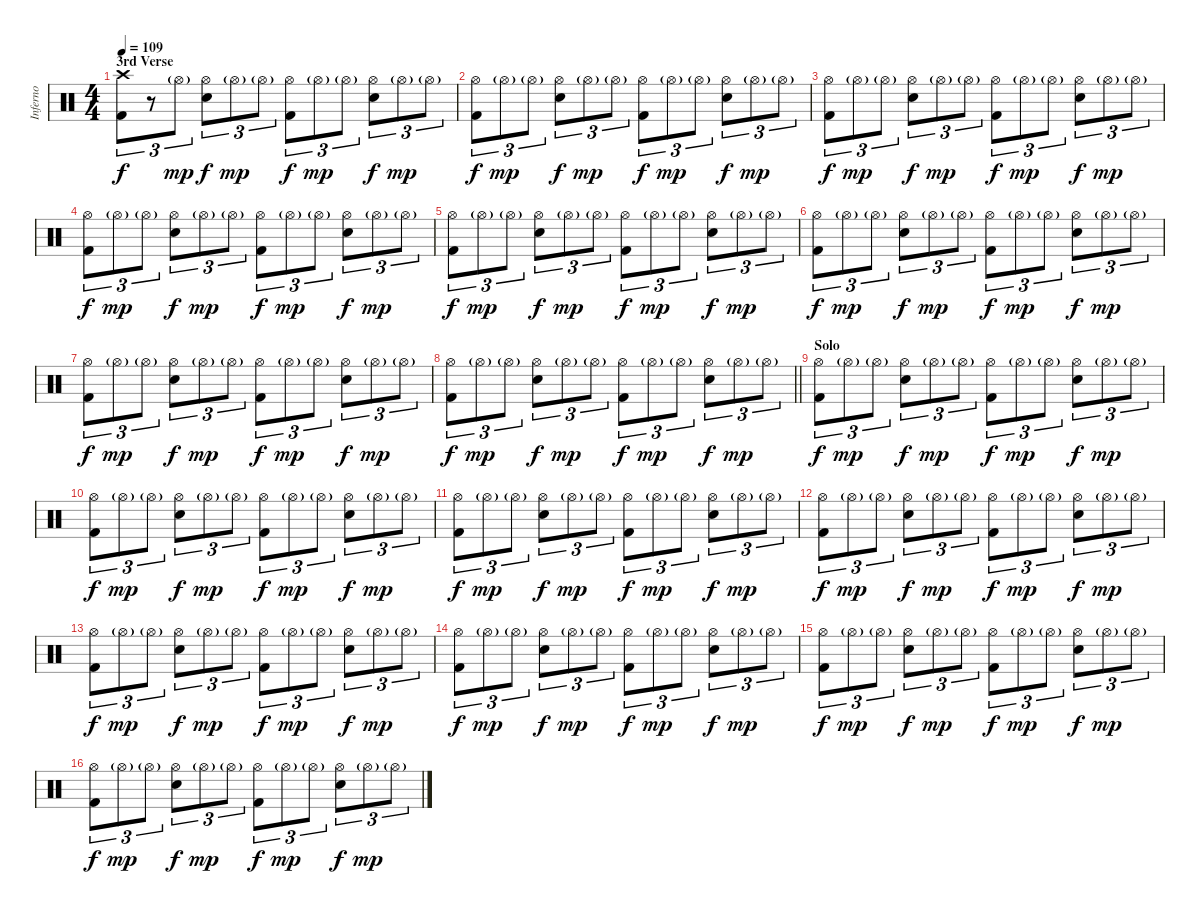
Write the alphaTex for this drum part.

\track ("Inferno" "Inferno") {instrument percussion}
\staff {score}
\articulation defaults
\ts (4 4)
\section ("" "3rd Verse")
\tempo 109
\clef neutral
\ks c
("Crash high (hit)" "Kick (hit) 2").8{tu (3 2) dy f} r.8{tu (3 2)} "Hi-Hat (open)"{g}.8{tu (3 2) dy mp} ("Hi-Hat (open)" "Snare (hit) 2").8{tu (3 2) dy f} "Hi-Hat (open)"{g}.8{tu (3 2) dy mp} "Hi-Hat (open)"{g}.8{tu (3 2)} ("Hi-Hat (open)" "Kick (hit) 2").8{tu (3 2) dy f} "Hi-Hat (open)"{g}.8{tu (3 2) dy mp} "Hi-Hat (open)"{g}.8{tu (3 2)} ("Hi-Hat (open)" "Snare (hit) 2").8{tu (3 2) dy f} "Hi-Hat (open)"{g}.8{tu (3 2) dy mp} "Hi-Hat (open)"{g}.8{tu (3 2)} |
("Hi-Hat (open)" "Kick (hit) 2").8{tu (3 2) dy f} "Hi-Hat (open)"{g}.8{tu (3 2) dy mp} "Hi-Hat (open)"{g}.8{tu (3 2)} ("Hi-Hat (open)" "Snare (hit) 2").8{tu (3 2) dy f} "Hi-Hat (open)"{g}.8{tu (3 2) dy mp} "Hi-Hat (open)"{g}.8{tu (3 2)} ("Hi-Hat (open)" "Kick (hit) 2").8{tu (3 2) dy f} "Hi-Hat (open)"{g}.8{tu (3 2) dy mp} "Hi-Hat (open)"{g}.8{tu (3 2)} ("Hi-Hat (open)" "Snare (hit) 2").8{tu (3 2) dy f} "Hi-Hat (open)"{g}.8{tu (3 2) dy mp} "Hi-Hat (open)"{g}.8{tu (3 2)} |
("Hi-Hat (open)" "Kick (hit) 2").8{tu (3 2) dy f} "Hi-Hat (open)"{g}.8{tu (3 2) dy mp} "Hi-Hat (open)"{g}.8{tu (3 2)} ("Hi-Hat (open)" "Snare (hit) 2").8{tu (3 2) dy f} "Hi-Hat (open)"{g}.8{tu (3 2) dy mp} "Hi-Hat (open)"{g}.8{tu (3 2)} ("Hi-Hat (open)" "Kick (hit) 2").8{tu (3 2) dy f} "Hi-Hat (open)"{g}.8{tu (3 2) dy mp} "Hi-Hat (open)"{g}.8{tu (3 2)} ("Hi-Hat (open)" "Snare (hit) 2").8{tu (3 2) dy f} "Hi-Hat (open)"{g}.8{tu (3 2) dy mp} "Hi-Hat (open)"{g}.8{tu (3 2)} |
("Hi-Hat (open)" "Kick (hit) 2").8{tu (3 2) dy f} "Hi-Hat (open)"{g}.8{tu (3 2) dy mp} "Hi-Hat (open)"{g}.8{tu (3 2)} ("Hi-Hat (open)" "Snare (hit) 2").8{tu (3 2) dy f} "Hi-Hat (open)"{g}.8{tu (3 2) dy mp} "Hi-Hat (open)"{g}.8{tu (3 2)} ("Hi-Hat (open)" "Kick (hit) 2").8{tu (3 2) dy f} "Hi-Hat (open)"{g}.8{tu (3 2) dy mp} "Hi-Hat (open)"{g}.8{tu (3 2)} ("Hi-Hat (open)" "Snare (hit) 2").8{tu (3 2) dy f} "Hi-Hat (open)"{g}.8{tu (3 2) dy mp} "Hi-Hat (open)"{g}.8{tu (3 2)} |
("Hi-Hat (open)" "Kick (hit) 2").8{tu (3 2) dy f} "Hi-Hat (open)"{g}.8{tu (3 2) dy mp} "Hi-Hat (open)"{g}.8{tu (3 2)} ("Hi-Hat (open)" "Snare (hit) 2").8{tu (3 2) dy f} "Hi-Hat (open)"{g}.8{tu (3 2) dy mp} "Hi-Hat (open)"{g}.8{tu (3 2)} ("Hi-Hat (open)" "Kick (hit) 2").8{tu (3 2) dy f} "Hi-Hat (open)"{g}.8{tu (3 2) dy mp} "Hi-Hat (open)"{g}.8{tu (3 2)} ("Hi-Hat (open)" "Snare (hit) 2").8{tu (3 2) dy f} "Hi-Hat (open)"{g}.8{tu (3 2) dy mp} "Hi-Hat (open)"{g}.8{tu (3 2)} |
("Hi-Hat (open)" "Kick (hit) 2").8{tu (3 2) dy f} "Hi-Hat (open)"{g}.8{tu (3 2) dy mp} "Hi-Hat (open)"{g}.8{tu (3 2)} ("Hi-Hat (open)" "Snare (hit) 2").8{tu (3 2) dy f} "Hi-Hat (open)"{g}.8{tu (3 2) dy mp} "Hi-Hat (open)"{g}.8{tu (3 2)} ("Hi-Hat (open)" "Kick (hit) 2").8{tu (3 2) dy f} "Hi-Hat (open)"{g}.8{tu (3 2) dy mp} "Hi-Hat (open)"{g}.8{tu (3 2)} ("Hi-Hat (open)" "Snare (hit) 2").8{tu (3 2) dy f} "Hi-Hat (open)"{g}.8{tu (3 2) dy mp} "Hi-Hat (open)"{g}.8{tu (3 2)} |
("Hi-Hat (open)" "Kick (hit) 2").8{tu (3 2) dy f} "Hi-Hat (open)"{g}.8{tu (3 2) dy mp} "Hi-Hat (open)"{g}.8{tu (3 2)} ("Hi-Hat (open)" "Snare (hit) 2").8{tu (3 2) dy f} "Hi-Hat (open)"{g}.8{tu (3 2) dy mp} "Hi-Hat (open)"{g}.8{tu (3 2)} ("Hi-Hat (open)" "Kick (hit) 2").8{tu (3 2) dy f} "Hi-Hat (open)"{g}.8{tu (3 2) dy mp} "Hi-Hat (open)"{g}.8{tu (3 2)} ("Hi-Hat (open)" "Snare (hit) 2").8{tu (3 2) dy f} "Hi-Hat (open)"{g}.8{tu (3 2) dy mp} "Hi-Hat (open)"{g}.8{tu (3 2)} |
\barLineRight lightlight
("Hi-Hat (open)" "Kick (hit) 2").8{tu (3 2) dy f} "Hi-Hat (open)"{g}.8{tu (3 2) dy mp} "Hi-Hat (open)"{g}.8{tu (3 2)} ("Hi-Hat (open)" "Snare (hit) 2").8{tu (3 2) dy f} "Hi-Hat (open)"{g}.8{tu (3 2) dy mp} "Hi-Hat (open)"{g}.8{tu (3 2)} ("Hi-Hat (open)" "Kick (hit) 2").8{tu (3 2) dy f} "Hi-Hat (open)"{g}.8{tu (3 2) dy mp} "Hi-Hat (open)"{g}.8{tu (3 2)} ("Hi-Hat (open)" "Snare (hit) 2").8{tu (3 2) dy f} "Hi-Hat (open)"{g}.8{tu (3 2) dy mp} "Hi-Hat (open)"{g}.8{tu (3 2)} |
\section ("" "Solo ")
("Hi-Hat (open)" "Kick (hit) 2").8{tu (3 2) dy f} "Hi-Hat (open)"{g}.8{tu (3 2) dy mp} "Hi-Hat (open)"{g}.8{tu (3 2)} ("Hi-Hat (open)" "Snare (hit) 2").8{tu (3 2) dy f} "Hi-Hat (open)"{g}.8{tu (3 2) dy mp} "Hi-Hat (open)"{g}.8{tu (3 2)} ("Hi-Hat (open)" "Kick (hit) 2").8{tu (3 2) dy f} "Hi-Hat (open)"{g}.8{tu (3 2) dy mp} "Hi-Hat (open)"{g}.8{tu (3 2)} ("Hi-Hat (open)" "Snare (hit) 2").8{tu (3 2) dy f} "Hi-Hat (open)"{g}.8{tu (3 2) dy mp} "Hi-Hat (open)"{g}.8{tu (3 2)} |
("Hi-Hat (open)" "Kick (hit) 2").8{tu (3 2) dy f} "Hi-Hat (open)"{g}.8{tu (3 2) dy mp} "Hi-Hat (open)"{g}.8{tu (3 2)} ("Hi-Hat (open)" "Snare (hit) 2").8{tu (3 2) dy f} "Hi-Hat (open)"{g}.8{tu (3 2) dy mp} "Hi-Hat (open)"{g}.8{tu (3 2)} ("Hi-Hat (open)" "Kick (hit) 2").8{tu (3 2) dy f} "Hi-Hat (open)"{g}.8{tu (3 2) dy mp} "Hi-Hat (open)"{g}.8{tu (3 2)} ("Hi-Hat (open)" "Snare (hit) 2").8{tu (3 2) dy f} "Hi-Hat (open)"{g}.8{tu (3 2) dy mp} "Hi-Hat (open)"{g}.8{tu (3 2)} |
("Hi-Hat (open)" "Kick (hit) 2").8{tu (3 2) dy f} "Hi-Hat (open)"{g}.8{tu (3 2) dy mp} "Hi-Hat (open)"{g}.8{tu (3 2)} ("Hi-Hat (open)" "Snare (hit) 2").8{tu (3 2) dy f} "Hi-Hat (open)"{g}.8{tu (3 2) dy mp} "Hi-Hat (open)"{g}.8{tu (3 2)} ("Hi-Hat (open)" "Kick (hit) 2").8{tu (3 2) dy f} "Hi-Hat (open)"{g}.8{tu (3 2) dy mp} "Hi-Hat (open)"{g}.8{tu (3 2)} ("Hi-Hat (open)" "Snare (hit) 2").8{tu (3 2) dy f} "Hi-Hat (open)"{g}.8{tu (3 2) dy mp} "Hi-Hat (open)"{g}.8{tu (3 2)} |
("Hi-Hat (open)" "Kick (hit) 2").8{tu (3 2) dy f} "Hi-Hat (open)"{g}.8{tu (3 2) dy mp} "Hi-Hat (open)"{g}.8{tu (3 2)} ("Hi-Hat (open)" "Snare (hit) 2").8{tu (3 2) dy f} "Hi-Hat (open)"{g}.8{tu (3 2) dy mp} "Hi-Hat (open)"{g}.8{tu (3 2)} ("Hi-Hat (open)" "Kick (hit) 2").8{tu (3 2) dy f} "Hi-Hat (open)"{g}.8{tu (3 2) dy mp} "Hi-Hat (open)"{g}.8{tu (3 2)} ("Hi-Hat (open)" "Snare (hit) 2").8{tu (3 2) dy f} "Hi-Hat (open)"{g}.8{tu (3 2) dy mp} "Hi-Hat (open)"{g}.8{tu (3 2)} |
("Hi-Hat (open)" "Kick (hit) 2").8{tu (3 2) dy f} "Hi-Hat (open)"{g}.8{tu (3 2) dy mp} "Hi-Hat (open)"{g}.8{tu (3 2)} ("Hi-Hat (open)" "Snare (hit) 2").8{tu (3 2) dy f} "Hi-Hat (open)"{g}.8{tu (3 2) dy mp} "Hi-Hat (open)"{g}.8{tu (3 2)} ("Hi-Hat (open)" "Kick (hit) 2").8{tu (3 2) dy f} "Hi-Hat (open)"{g}.8{tu (3 2) dy mp} "Hi-Hat (open)"{g}.8{tu (3 2)} ("Hi-Hat (open)" "Snare (hit) 2").8{tu (3 2) dy f} "Hi-Hat (open)"{g}.8{tu (3 2) dy mp} "Hi-Hat (open)"{g}.8{tu (3 2)} |
("Hi-Hat (open)" "Kick (hit) 2").8{tu (3 2) dy f} "Hi-Hat (open)"{g}.8{tu (3 2) dy mp} "Hi-Hat (open)"{g}.8{tu (3 2)} ("Hi-Hat (open)" "Snare (hit) 2").8{tu (3 2) dy f} "Hi-Hat (open)"{g}.8{tu (3 2) dy mp} "Hi-Hat (open)"{g}.8{tu (3 2)} ("Hi-Hat (open)" "Kick (hit) 2").8{tu (3 2) dy f} "Hi-Hat (open)"{g}.8{tu (3 2) dy mp} "Hi-Hat (open)"{g}.8{tu (3 2)} ("Hi-Hat (open)" "Snare (hit) 2").8{tu (3 2) dy f} "Hi-Hat (open)"{g}.8{tu (3 2) dy mp} "Hi-Hat (open)"{g}.8{tu (3 2)} |
("Hi-Hat (open)" "Kick (hit) 2").8{tu (3 2) dy f} "Hi-Hat (open)"{g}.8{tu (3 2) dy mp} "Hi-Hat (open)"{g}.8{tu (3 2)} ("Hi-Hat (open)" "Snare (hit) 2").8{tu (3 2) dy f} "Hi-Hat (open)"{g}.8{tu (3 2) dy mp} "Hi-Hat (open)"{g}.8{tu (3 2)} ("Hi-Hat (open)" "Kick (hit) 2").8{tu (3 2) dy f} "Hi-Hat (open)"{g}.8{tu (3 2) dy mp} "Hi-Hat (open)"{g}.8{tu (3 2)} ("Hi-Hat (open)" "Snare (hit) 2").8{tu (3 2) dy f} "Hi-Hat (open)"{g}.8{tu (3 2) dy mp} "Hi-Hat (open)"{g}.8{tu (3 2)} |
("Hi-Hat (open)" "Kick (hit) 2").8{tu (3 2) dy f} "Hi-Hat (open)"{g}.8{tu (3 2) dy mp} "Hi-Hat (open)"{g}.8{tu (3 2)} ("Hi-Hat (open)" "Snare (hit) 2").8{tu (3 2) dy f} "Hi-Hat (open)"{g}.8{tu (3 2) dy mp} "Hi-Hat (open)"{g}.8{tu (3 2)} ("Hi-Hat (open)" "Kick (hit) 2").8{tu (3 2) dy f} "Hi-Hat (open)"{g}.8{tu (3 2) dy mp} "Hi-Hat (open)"{g}.8{tu (3 2)} ("Hi-Hat (open)" "Snare (hit) 2").8{tu (3 2) dy f} "Hi-Hat (open)"{g}.8{tu (3 2) dy mp} "Hi-Hat (open)"{g}.8{tu (3 2)}
